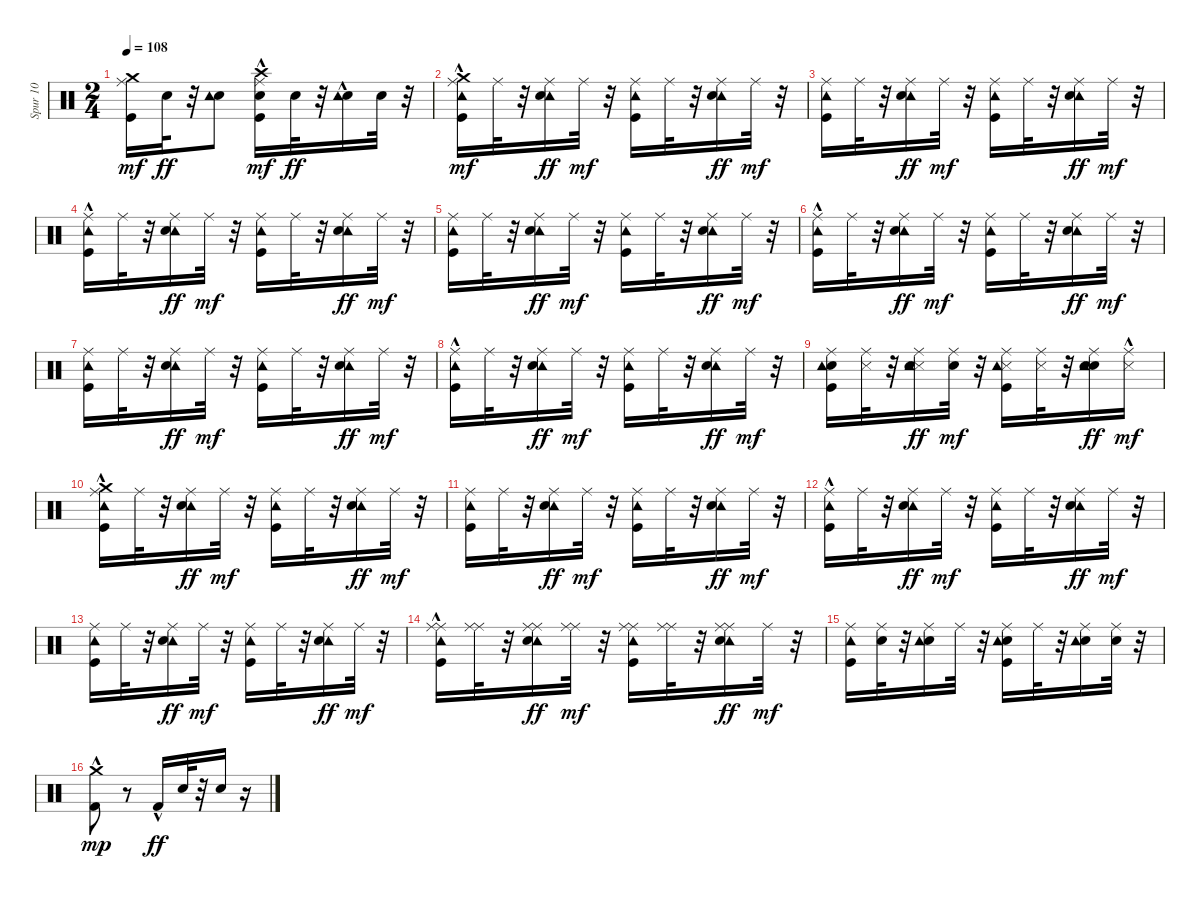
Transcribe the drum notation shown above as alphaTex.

\track ("Spur 10" "Spur 10") {instrument percussion}
\staff {score}
\articulation defaults
\ts (2 4)
\tempo 108
\clef neutral
\ks c
("Crash medium (hit)" "Ride (middle)" "Kick (hit)").16{dy mf} "Electric Snare (hit)".32{dy ff} r.32 ("Electric Snare (hit)" "Tambourine (hit)").8 ("Crash high (hit)"{hac} "Electric Snare (hit)" "Ride (middle)" "Kick (hit)").16{dy mf} "Electric Snare (hit)".32{dy ff} r.32 ("Electric Snare (hit)" "Tambourine (hit)"{hac}).16 "Electric Snare (hit)".32 r.32 |
("Crash medium (hit)" "Tambourine (hit)" "Ride (middle)" "Kick (hit)"{hac}).16{dy mf} "Ride (middle)".32 r.32 ("Tambourine (hit)" "Ride (middle)" "Electric Snare (hit)").16{dy ff} "Ride (middle)".32{dy mf} r.32 ("Tambourine (hit)" "Ride (middle)" "Kick (hit)").16 "Ride (middle)".32 r.32 ("Tambourine (hit)" "Ride (middle)" "Electric Snare (hit)").16{dy ff} "Ride (middle)".32{dy mf} r.32 |
("Tambourine (hit)" "Ride (middle)" "Kick (hit)").16 "Ride (middle)".32 r.32 ("Tambourine (hit)" "Ride (middle)" "Electric Snare (hit)").16{dy ff} "Ride (middle)".32{dy mf} r.32 ("Tambourine (hit)" "Ride (middle)" "Kick (hit)").16 "Ride (middle)".32 r.32 ("Tambourine (hit)" "Ride (middle)" "Electric Snare (hit)").16{dy ff} "Ride (middle)".32{dy mf} r.32 |
("Tambourine (hit)" "Ride (middle)" "Kick (hit)"{hac}).16 "Ride (middle)".32 r.32 ("Tambourine (hit)" "Ride (middle)" "Electric Snare (hit)").16{dy ff} "Ride (middle)".32{dy mf} r.32 ("Tambourine (hit)" "Ride (middle)" "Kick (hit)").16 "Ride (middle)".32 r.32 ("Tambourine (hit)" "Ride (middle)" "Electric Snare (hit)").16{dy ff} "Ride (middle)".32{dy mf} r.32 |
("Tambourine (hit)" "Ride (middle)" "Kick (hit)").16 "Ride (middle)".32 r.32 ("Tambourine (hit)" "Ride (middle)" "Electric Snare (hit)").16{dy ff} "Ride (middle)".32{dy mf} r.32 ("Tambourine (hit)" "Ride (middle)" "Kick (hit)").16 "Ride (middle)".32 r.32 ("Tambourine (hit)" "Ride (middle)" "Electric Snare (hit)").16{dy ff} "Ride (middle)".32{dy mf} r.32 |
("Tambourine (hit)" "Ride (middle)" "Kick (hit)"{hac}).16 "Ride (middle)".32 r.32 ("Tambourine (hit)" "Ride (middle)" "Electric Snare (hit)").16{dy ff} "Ride (middle)".32{dy mf} r.32 ("Tambourine (hit)" "Ride (middle)" "Kick (hit)").16 "Ride (middle)".32 r.32 ("Tambourine (hit)" "Ride (middle)" "Electric Snare (hit)").16{dy ff} "Ride (middle)".32{dy mf} r.32 |
("Tambourine (hit)" "Ride (middle)" "Kick (hit)").16 "Ride (middle)".32 r.32 ("Tambourine (hit)" "Ride (middle)" "Electric Snare (hit)").16{dy ff} "Ride (middle)".32{dy mf} r.32 ("Tambourine (hit)" "Ride (middle)" "Kick (hit)").16 "Ride (middle)".32 r.32 ("Tambourine (hit)" "Ride (middle)" "Electric Snare (hit)").16{dy ff} "Ride (middle)".32{dy mf} r.32 |
("Tambourine (hit)" "Ride (middle)" "Kick (hit)"{hac}).16 "Ride (middle)".32 r.32 ("Tambourine (hit)" "Ride (middle)" "Electric Snare (hit)").16{dy ff} "Ride (middle)".32{dy mf} r.32 ("Tambourine (hit)" "Ride (middle)" "Kick (hit)").16 "Ride (middle)".32 r.32 ("Tambourine (hit)" "Ride (middle)" "Electric Snare (hit)").16{dy ff} "Ride (middle)".32{dy mf} r.32 |
("Electric Snare (hit)" "Tambourine (hit)" "Ride (middle)" "Kick (hit)").16 ("Snare (side stick) 3" "Ride (middle)").32 r.32 ("Snare (side stick) 3" "Tambourine (hit)" "Ride (middle)" "Electric Snare (hit)").16{dy ff} ("Electric Snare (hit)" "Ride (middle)").32{dy mf} r.32 ("Snare (side stick) 3" "Tambourine (hit)" "Ride (middle)" "Kick (hit)").16 ("Snare (side stick) 3" "Ride (middle)").32 r.32 ("Electric Snare (hit)" "Tambourine (hit)" "Ride (middle)" "Electric Snare (hit)").16{dy ff} ("Snare (side stick) 3"{hac} "Ride (middle)").16{dy mf} |
("Crash medium (hit)" "Tambourine (hit)" "Ride (middle)" "Kick (hit)"{hac}).16 "Ride (middle)".32 r.32 ("Tambourine (hit)" "Ride (middle)" "Electric Snare (hit)").16{dy ff} "Ride (middle)".32{dy mf} r.32 ("Tambourine (hit)" "Ride (middle)" "Kick (hit)").16 "Ride (middle)".32 r.32 ("Tambourine (hit)" "Ride (middle)" "Electric Snare (hit)").16{dy ff} "Ride (middle)".32{dy mf} r.32 |
("Tambourine (hit)" "Ride (middle)" "Kick (hit)").16 "Ride (middle)".32 r.32 ("Tambourine (hit)" "Ride (middle)" "Electric Snare (hit)").16{dy ff} "Ride (middle)".32{dy mf} r.32 ("Tambourine (hit)" "Ride (middle)" "Kick (hit)").16 "Ride (middle)".32 r.32 ("Tambourine (hit)" "Ride (middle)" "Electric Snare (hit)").16{dy ff} "Ride (middle)".32{dy mf} r.32 |
("Tambourine (hit)" "Ride (middle)" "Kick (hit)"{hac}).16 "Ride (middle)".32 r.32 ("Tambourine (hit)" "Ride (middle)" "Electric Snare (hit)").16{dy ff} "Ride (middle)".32{dy mf} r.32 ("Tambourine (hit)" "Ride (middle)" "Kick (hit)").16 "Ride (middle)".32 r.32 ("Tambourine (hit)" "Ride (middle)" "Electric Snare (hit)").16{dy ff} "Ride (middle)".32{dy mf} r.32 |
("Tambourine (hit)" "Ride (middle)" "Kick (hit)").16 "Ride (middle)".32 r.32 ("Tambourine (hit)" "Ride (middle)" "Electric Snare (hit)").16{dy ff} "Ride (middle)".32{dy mf} r.32 ("Tambourine (hit)" "Ride (middle)" "Kick (hit)").16 "Ride (middle)".32 r.32 ("Tambourine (hit)" "Ride (middle)" "Electric Snare (hit)").16{dy ff} "Ride (middle)".32{dy mf} r.32 |
("Ride (middle)" "Tambourine (hit)" "Ride (middle)" "Kick (hit)"{hac}).16 ("Ride (middle)" "Ride (middle)").32 r.32 ("Ride (middle)" "Tambourine (hit)" "Ride (middle)" "Electric Snare (hit)").16{dy ff} ("Ride (middle)" "Ride (middle)").32{dy mf} r.32 ("Ride (middle)" "Tambourine (hit)" "Ride (middle)" "Kick (hit)").16 ("Ride (middle)" "Ride (middle)").32 r.32 ("Ride (middle)" "Tambourine (hit)" "Ride (middle)" "Electric Snare (hit)").16{dy ff} "Ride (middle)".32{dy mf} r.32 |
("Tambourine (hit)" "Ride (middle)" "Kick (hit)").16 ("Electric Snare (hit)" "Ride (middle)").32 r.32 ("Electric Snare (hit)" "Tambourine (hit)" "Ride (middle)").16 "Ride (middle)".32 r.32 ("Electric Snare (hit)" "Tambourine (hit)" "Ride (middle)" "Kick (hit)").16 "Ride (middle)".32 r.32 ("Electric Snare (hit)" "Tambourine (hit)" "Ride (middle)").16 ("Electric Snare (hit)" "Ride (middle)").32 r.32 |
("Kick (hit) 2"{hac} "Crash medium (hit)").8{dy mp} r.8 "Kick (hit) 2"{hac}.16{dy ff} "Electric Snare (hit)".32 r.32 "Electric Snare (hit)".16 r.16
